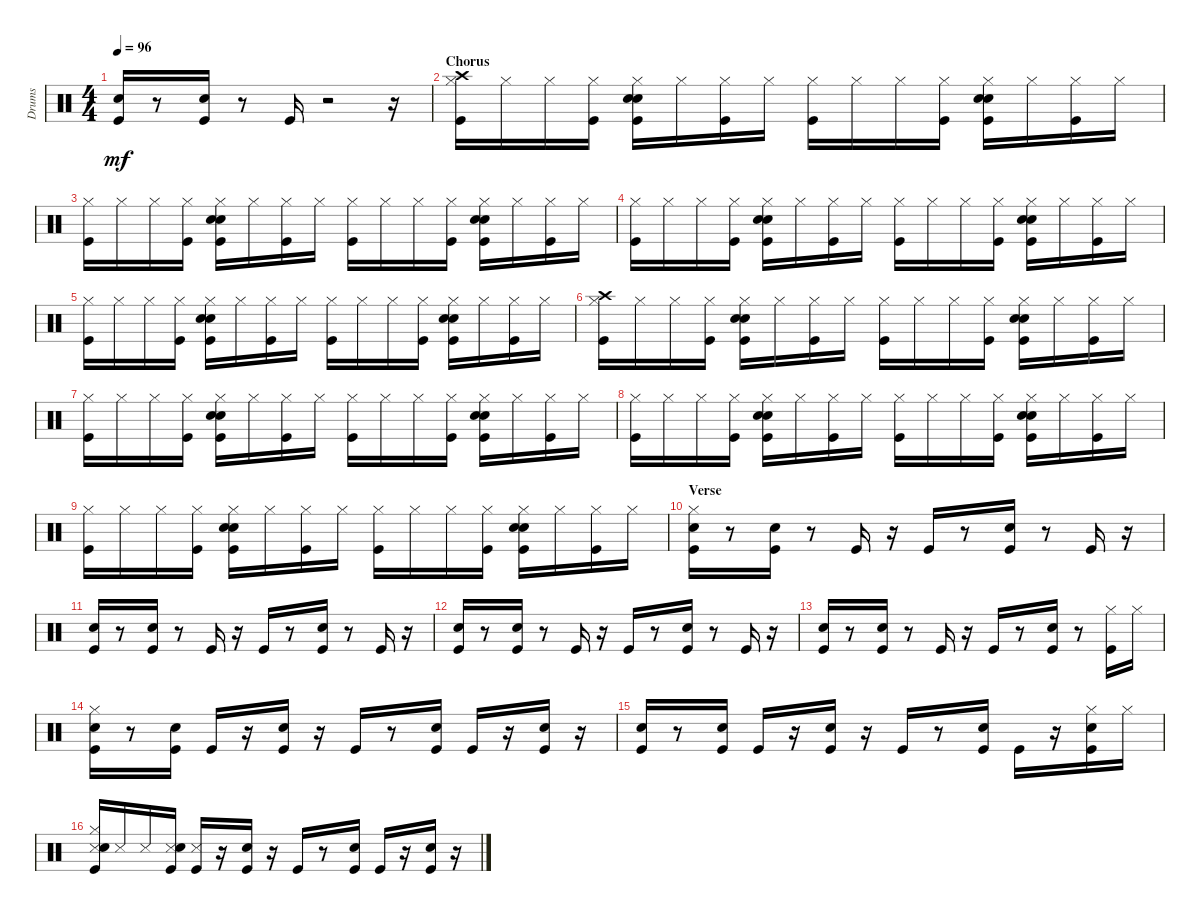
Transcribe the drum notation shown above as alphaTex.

\track ("Drums" "Drums") {instrument percussion}
\staff {score}
\articulation defaults
\ts (4 4)
\tempo 96
\clef neutral
\ks aminor
("Kick (hit)" "Hand Clap (hit)").16{dy mf} r.8 ("Kick (hit)" "Hand Clap (hit)").16 r.8 "Kick (hit)".16 r.2 r.16 |
\section ("" "Chorus")
("Kick (hit)" "Hi-Hat (closed)" "Crash high (hit)").16 "Hi-Hat (closed)".16 "Hi-Hat (closed)".16 ("Kick (hit)" "Hi-Hat (closed)").16 ("Kick (hit)" "Hand Clap (hit)" "Electric Snare (hit)" "Hi-Hat (closed)").16 "Hi-Hat (closed)".16 ("Kick (hit)" "Hi-Hat (closed)").16 "Hi-Hat (closed)".16 ("Kick (hit)" "Hi-Hat (closed)").16 "Hi-Hat (closed)".16 "Hi-Hat (closed)".16 ("Kick (hit)" "Hi-Hat (closed)").16 ("Kick (hit)" "Hand Clap (hit)" "Electric Snare (hit)" "Hi-Hat (closed)").16 "Hi-Hat (closed)".16 ("Kick (hit)" "Hi-Hat (closed)").16 "Hi-Hat (closed)".16 |
("Kick (hit)" "Hi-Hat (closed)").16 "Hi-Hat (closed)".16 "Hi-Hat (closed)".16 ("Kick (hit)" "Hi-Hat (closed)").16 ("Kick (hit)" "Hand Clap (hit)" "Electric Snare (hit)" "Hi-Hat (closed)").16 "Hi-Hat (closed)".16 ("Kick (hit)" "Hi-Hat (closed)").16 "Hi-Hat (closed)".16 ("Kick (hit)" "Hi-Hat (closed)").16 "Hi-Hat (closed)".16 "Hi-Hat (closed)".16 ("Kick (hit)" "Hi-Hat (closed)").16 ("Kick (hit)" "Hand Clap (hit)" "Electric Snare (hit)" "Hi-Hat (closed)").16 "Hi-Hat (closed)".16 ("Kick (hit)" "Hi-Hat (closed)").16 "Hi-Hat (closed)".16 |
("Kick (hit)" "Hi-Hat (closed)").16 "Hi-Hat (closed)".16 "Hi-Hat (closed)".16 ("Kick (hit)" "Hi-Hat (closed)").16 ("Kick (hit)" "Hand Clap (hit)" "Electric Snare (hit)" "Hi-Hat (closed)").16 "Hi-Hat (closed)".16 ("Kick (hit)" "Hi-Hat (closed)").16 "Hi-Hat (closed)".16 ("Kick (hit)" "Hi-Hat (closed)").16 "Hi-Hat (closed)".16 "Hi-Hat (closed)".16 ("Kick (hit)" "Hi-Hat (closed)").16 ("Kick (hit)" "Hand Clap (hit)" "Electric Snare (hit)" "Hi-Hat (closed)").16 "Hi-Hat (closed)".16 ("Kick (hit)" "Hi-Hat (closed)").16 "Hi-Hat (closed)".16 |
("Kick (hit)" "Hi-Hat (closed)").16 "Hi-Hat (closed)".16 "Hi-Hat (closed)".16 ("Kick (hit)" "Hi-Hat (closed)").16 ("Kick (hit)" "Hand Clap (hit)" "Electric Snare (hit)" "Hi-Hat (closed)").16 "Hi-Hat (closed)".16 ("Kick (hit)" "Hi-Hat (closed)").16 "Hi-Hat (closed)".16 ("Kick (hit)" "Hi-Hat (closed)").16 "Hi-Hat (closed)".16 "Hi-Hat (closed)".16 ("Kick (hit)" "Hi-Hat (closed)").16 ("Kick (hit)" "Hand Clap (hit)" "Electric Snare (hit)" "Hi-Hat (closed)").16 "Hi-Hat (closed)".16 ("Kick (hit)" "Hi-Hat (closed)").16 "Hi-Hat (closed)".16 |
("Kick (hit)" "Hi-Hat (closed)" "Crash high (hit)").16 "Hi-Hat (closed)".16 "Hi-Hat (closed)".16 ("Kick (hit)" "Hi-Hat (closed)").16 ("Kick (hit)" "Hand Clap (hit)" "Electric Snare (hit)" "Hi-Hat (closed)").16 "Hi-Hat (closed)".16 ("Kick (hit)" "Hi-Hat (closed)").16 "Hi-Hat (closed)".16 ("Kick (hit)" "Hi-Hat (closed)").16 "Hi-Hat (closed)".16 "Hi-Hat (closed)".16 ("Kick (hit)" "Hi-Hat (closed)").16 ("Kick (hit)" "Hand Clap (hit)" "Electric Snare (hit)" "Hi-Hat (closed)").16 "Hi-Hat (closed)".16 ("Kick (hit)" "Hi-Hat (closed)").16 "Hi-Hat (closed)".16 |
("Kick (hit)" "Hi-Hat (closed)").16 "Hi-Hat (closed)".16 "Hi-Hat (closed)".16 ("Kick (hit)" "Hi-Hat (closed)").16 ("Kick (hit)" "Hand Clap (hit)" "Electric Snare (hit)" "Hi-Hat (closed)").16 "Hi-Hat (closed)".16 ("Kick (hit)" "Hi-Hat (closed)").16 "Hi-Hat (closed)".16 ("Kick (hit)" "Hi-Hat (closed)").16 "Hi-Hat (closed)".16 "Hi-Hat (closed)".16 ("Kick (hit)" "Hi-Hat (closed)").16 ("Kick (hit)" "Hand Clap (hit)" "Electric Snare (hit)" "Hi-Hat (closed)").16 "Hi-Hat (closed)".16 ("Kick (hit)" "Hi-Hat (closed)").16 "Hi-Hat (closed)".16 |
("Kick (hit)" "Hi-Hat (closed)").16 "Hi-Hat (closed)".16 "Hi-Hat (closed)".16 ("Kick (hit)" "Hi-Hat (closed)").16 ("Kick (hit)" "Hand Clap (hit)" "Electric Snare (hit)" "Hi-Hat (closed)").16 "Hi-Hat (closed)".16 ("Kick (hit)" "Hi-Hat (closed)").16 "Hi-Hat (closed)".16 ("Kick (hit)" "Hi-Hat (closed)").16 "Hi-Hat (closed)".16 "Hi-Hat (closed)".16 ("Kick (hit)" "Hi-Hat (closed)").16 ("Kick (hit)" "Hand Clap (hit)" "Electric Snare (hit)" "Hi-Hat (closed)").16 "Hi-Hat (closed)".16 ("Kick (hit)" "Hi-Hat (closed)").16 "Hi-Hat (closed)".16 |
("Kick (hit)" "Hi-Hat (closed)").16 "Hi-Hat (closed)".16 "Hi-Hat (closed)".16 ("Kick (hit)" "Hi-Hat (closed)").16 ("Kick (hit)" "Hand Clap (hit)" "Electric Snare (hit)" "Hi-Hat (closed)").16 "Hi-Hat (closed)".16 ("Kick (hit)" "Hi-Hat (closed)").16 "Hi-Hat (closed)".16 ("Kick (hit)" "Hi-Hat (closed)").16 "Hi-Hat (closed)".16 "Hi-Hat (closed)".16 ("Kick (hit)" "Hi-Hat (closed)").16 ("Kick (hit)" "Hand Clap (hit)" "Electric Snare (hit)" "Hi-Hat (closed)").16 "Hi-Hat (closed)".16 ("Kick (hit)" "Hi-Hat (closed)").16 "Hi-Hat (closed)".16 |
\section ("" "Verse")
("Kick (hit)" "Hand Clap (hit)" "Hi-Hat (closed)").16 r.8 ("Kick (hit)" "Hand Clap (hit)").16 r.8 "Kick (hit)".16 r.16 "Kick (hit)".16 r.8 ("Kick (hit)" "Hand Clap (hit)").16 r.8 "Kick (hit)".16 r.16 |
("Kick (hit)" "Hand Clap (hit)").16 r.8 ("Kick (hit)" "Hand Clap (hit)").16 r.8 "Kick (hit)".16 r.16 "Kick (hit)".16 r.8 ("Kick (hit)" "Hand Clap (hit)").16 r.8 "Kick (hit)".16 r.16 |
("Kick (hit)" "Hand Clap (hit)").16 r.8 ("Kick (hit)" "Hand Clap (hit)").16 r.8 "Kick (hit)".16 r.16 "Kick (hit)".16 r.8 ("Kick (hit)" "Hand Clap (hit)").16 r.8 "Kick (hit)".16 r.16 |
("Kick (hit)" "Hand Clap (hit)").16 r.8 ("Kick (hit)" "Hand Clap (hit)").16 r.8 "Kick (hit)".16 r.16 "Kick (hit)".16 r.8 ("Kick (hit)" "Hand Clap (hit)").16 r.8 ("Kick (hit)" "Hi-Hat (closed)").16 "Hi-Hat (closed)".16 |
("Kick (hit)" "Hand Clap (hit)" "Hi-Hat (closed)").16 r.8 ("Kick (hit)" "Hand Clap (hit)").16 "Kick (hit)".16 r.16 ("Kick (hit)" "Electric Snare (hit)").16 r.16 "Kick (hit)".16 r.8 ("Kick (hit)" "Hand Clap (hit)").16 "Kick (hit)".16 r.16 ("Kick (hit)" "Electric Snare (hit)").16 r.16 |
("Kick (hit)" "Hand Clap (hit)").16 r.8 ("Kick (hit)" "Hand Clap (hit)").16 "Kick (hit)".16 r.16 ("Kick (hit)" "Electric Snare (hit)").16 r.16 "Kick (hit)".16 r.8 ("Kick (hit)" "Hand Clap (hit)").16 "Kick (hit)".16 r.16 ("Kick (hit)" "Electric Snare (hit)" "Hi-Hat (closed)").16 "Hi-Hat (closed)".16 |
("Metronome (hit)" "Kick (hit)" "Hand Clap (hit)" "Hi-Hat (closed)").16 "Metronome (hit)".16 "Metronome (hit)".16 ("Metronome (hit)" "Kick (hit)" "Hand Clap (hit)").16 ("Metronome (hit)" "Kick (hit)").16 r.16 ("Kick (hit)" "Electric Snare (hit)").16 r.16 "Kick (hit)".16 r.8 ("Kick (hit)" "Hand Clap (hit)").16 "Kick (hit)".16 r.16 ("Kick (hit)" "Electric Snare (hit)").16 r.16
